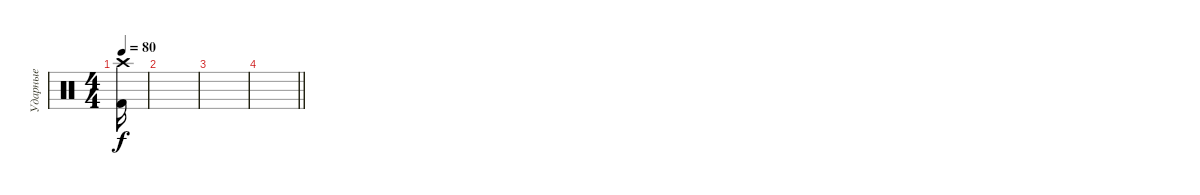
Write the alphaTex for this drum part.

\track ("Ударные" "Ударные") {instrument percussion}
\staff {score}
\articulation defaults
\ts (4 4)
\tempo 80
\clef neutral
\ks c
("Crash high (hit)" "Kick (hit) 2").16{dy f} |
|
|
\barLineRight lightlight
